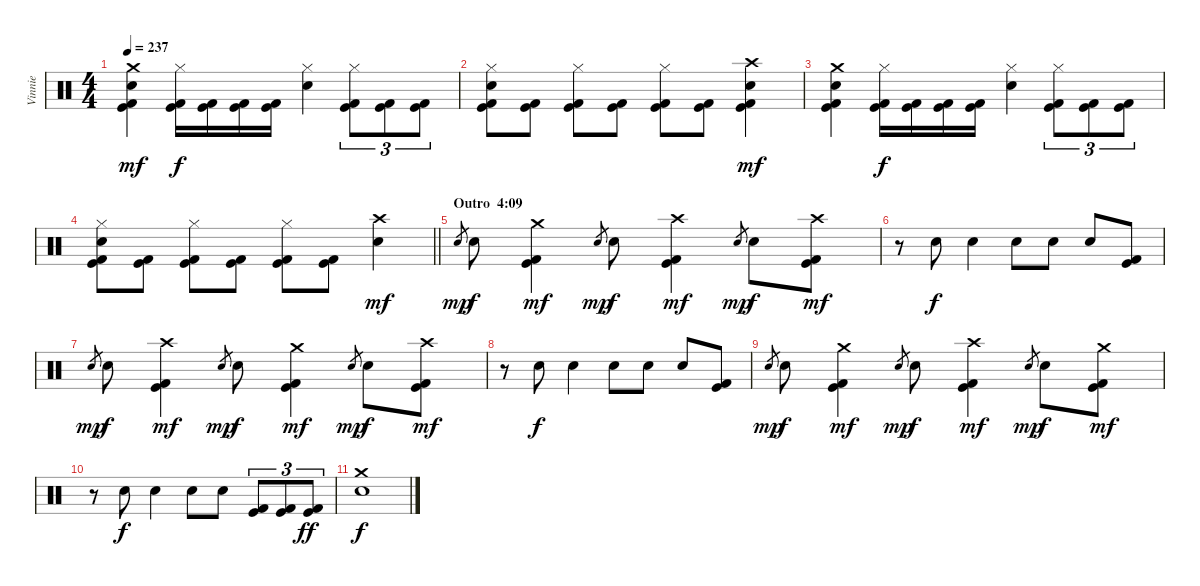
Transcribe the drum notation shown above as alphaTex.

\track ("Vinnie" "Vinnie") {instrument percussion}
\staff {score}
\articulation defaults
\ts (4 4)
\tempo 237
\clef neutral
\ks c
("Crash medium (hit)" "Electric Snare (hit)" "Kick (hit)" "Kick (hit) 2").4{bd 60 dy mf} ("Hi-Hat (closed)" "Kick (hit)" "Kick (hit) 2").16{dy f} ("Kick (hit)" "Kick (hit) 2").16 ("Kick (hit)" "Kick (hit) 2").16 ("Kick (hit)" "Kick (hit) 2").16 ("Hi-Hat (closed)" "Electric Snare (hit)").4 ("Hi-Hat (closed)" "Kick (hit)" "Kick (hit) 2").8{tu (3 2)} ("Kick (hit)" "Kick (hit) 2").8{tu (3 2)} ("Kick (hit)" "Kick (hit) 2").8{tu (3 2)} |
("Hi-Hat (closed)" "Electric Snare (hit)" "Kick (hit)" "Kick (hit) 2").8{bd 30} ("Kick (hit)" "Kick (hit) 2").8 ("Hi-Hat (closed)" "Kick (hit)" "Kick (hit) 2").8 ("Kick (hit)" "Kick (hit) 2").8 ("Hi-Hat (closed)" "Kick (hit)" "Kick (hit) 2").8 ("Kick (hit)" "Kick (hit) 2").8 ("Crash high (hit)" "Electric Snare (hit)" "Kick (hit)" "Kick (hit) 2").4{bd 30 dy mf} |
("Crash medium (hit)" "Electric Snare (hit)" "Kick (hit)" "Kick (hit) 2").4{bd 60} ("Hi-Hat (closed)" "Kick (hit)" "Kick (hit) 2").16{dy f} ("Kick (hit)" "Kick (hit) 2").16 ("Kick (hit)" "Kick (hit) 2").16 ("Kick (hit)" "Kick (hit) 2").16 ("Hi-Hat (closed)" "Electric Snare (hit)").4 ("Hi-Hat (closed)" "Kick (hit)" "Kick (hit) 2").8{tu (3 2)} ("Kick (hit)" "Kick (hit) 2").8{tu (3 2)} ("Kick (hit)" "Kick (hit) 2").8{tu (3 2)} |
\barLineRight lightlight
("Hi-Hat (closed)" "Electric Snare (hit)" "Kick (hit)" "Kick (hit) 2").8{bd 30} ("Kick (hit)" "Kick (hit) 2").8 ("Hi-Hat (closed)" "Kick (hit)" "Kick (hit) 2").8 ("Kick (hit)" "Kick (hit) 2").8 ("Hi-Hat (closed)" "Kick (hit)" "Kick (hit) 2").8 ("Kick (hit)" "Kick (hit) 2").8 ("Crash high (hit)" "Electric Snare (hit)").4{dy mf} |
\section ("" "Outro  4:09")
"Electric Snare (hit)".8{gr dy mp} "Electric Snare (hit)".8{dy f} ("Crash medium (hit)" "Kick (hit)" "Kick (hit) 2").4{dy mf} "Electric Snare (hit)".8{gr dy mp} "Electric Snare (hit)".8{dy f} ("Crash high (hit)" "Kick (hit)" "Kick (hit) 2").4{dy mf} "Electric Snare (hit)".8{gr dy mp} "Electric Snare (hit)".8{dy f} ("Crash high (hit)" "Kick (hit)" "Kick (hit) 2").8{dy mf} |
r.8 "Electric Snare (hit)".8{dy f} "Electric Snare (hit)".4 "Electric Snare (hit)".8 "Electric Snare (hit)".8 "Electric Snare (hit)".8 ("Kick (hit)" "Kick (hit) 2").8 |
"Electric Snare (hit)".8{gr dy mp} "Electric Snare (hit)".8{dy f} ("Crash high (hit)" "Kick (hit)" "Kick (hit) 2").4{dy mf} "Electric Snare (hit)".8{gr dy mp} "Electric Snare (hit)".8{dy f} ("Crash medium (hit)" "Kick (hit)" "Kick (hit) 2").4{dy mf} "Electric Snare (hit)".8{gr dy mp} "Electric Snare (hit)".8{dy f} ("Crash high (hit)" "Kick (hit)" "Kick (hit) 2").8{dy mf} |
r.8 "Electric Snare (hit)".8{dy f} "Electric Snare (hit)".4 "Electric Snare (hit)".8 "Electric Snare (hit)".8 "Electric Snare (hit)".8 ("Kick (hit)" "Kick (hit) 2").8 |
"Electric Snare (hit)".8{gr dy mp} "Electric Snare (hit)".8{dy f} ("Crash medium (hit)" "Kick (hit)" "Kick (hit) 2").4{dy mf} "Electric Snare (hit)".8{gr dy mp} "Electric Snare (hit)".8{dy f} ("Crash high (hit)" "Kick (hit)" "Kick (hit) 2").4{dy mf} "Electric Snare (hit)".8{gr dy mp} "Electric Snare (hit)".8{dy f} ("Crash medium (hit)" "Kick (hit)" "Kick (hit) 2").8{dy mf} |
r.8 "Electric Snare (hit)".8{dy f} "Electric Snare (hit)".4 "Electric Snare (hit)".8 "Electric Snare (hit)".8 ("Kick (hit)" "Kick (hit) 2").8{tu (3 2)} ("Kick (hit)" "Kick (hit) 2").8{tu (3 2)} ("Kick (hit)" "Kick (hit) 2").8{tu (3 2) dy ff} |
("Crash medium (hit)" "Electric Snare (hit)").1{dy f}
